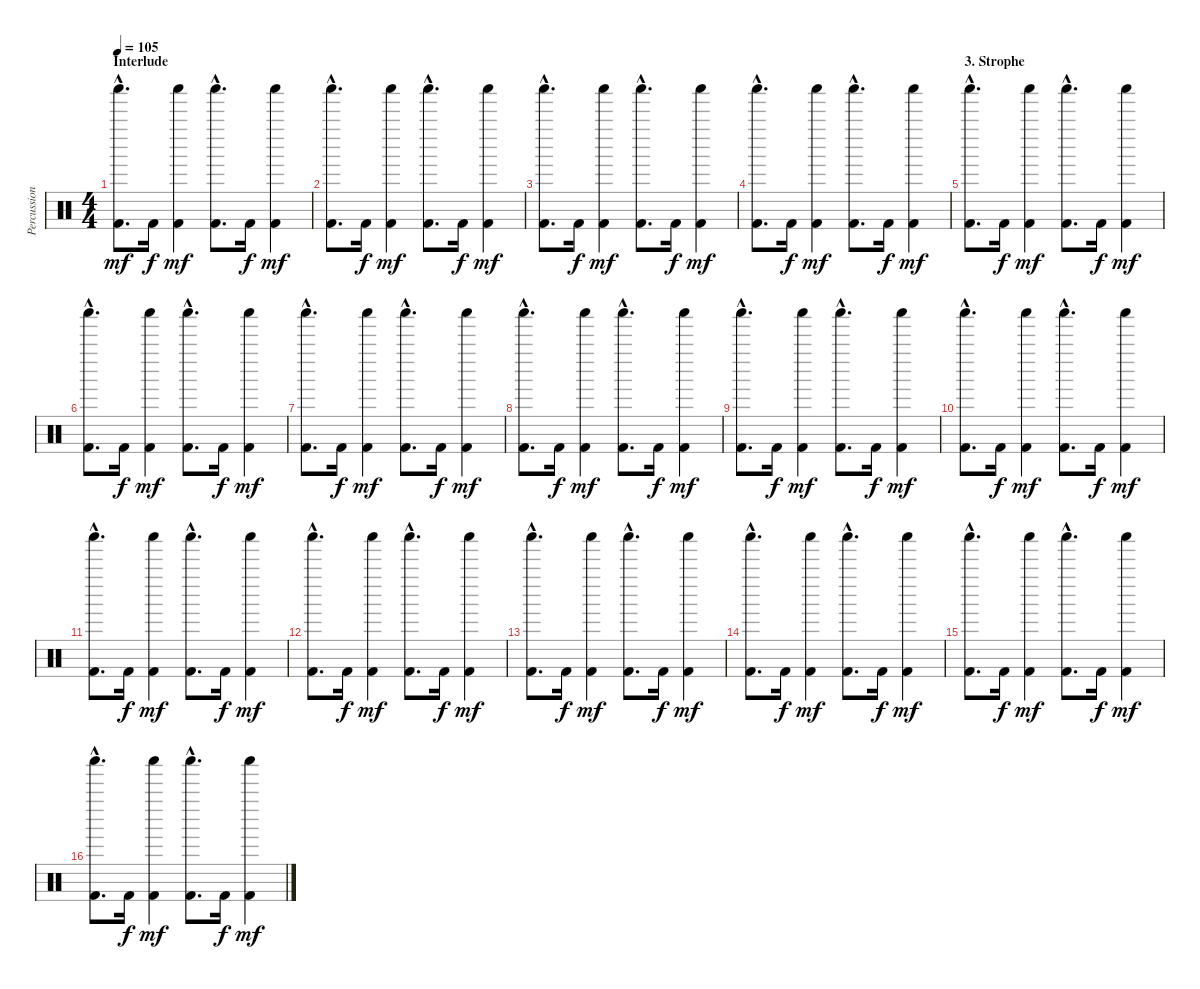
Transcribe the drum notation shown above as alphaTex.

\track ("Percussion" "Percussion") {instrument percussion}
\staff {score}
\articulation defaults
\ts (4 4)
\section ("" "Interlude")
\tempo 105
\clef neutral
\ks c
("Shaker (hit)"{hac} "Kick (hit) 2"{hac}).8{d dy mf} "Kick (hit) 2".16{dy f} ("Shaker (hit)" "Kick (hit) 2").4{dy mf} ("Shaker (hit)"{hac} "Kick (hit) 2"{hac}).8{d} "Kick (hit) 2".16{dy f} ("Shaker (hit)" "Kick (hit) 2").4{dy mf} |
("Shaker (hit)"{hac} "Kick (hit) 2"{hac}).8{d} "Kick (hit) 2".16{dy f} ("Shaker (hit)" "Kick (hit) 2").4{dy mf} ("Shaker (hit)"{hac} "Kick (hit) 2"{hac}).8{d} "Kick (hit) 2".16{dy f} ("Shaker (hit)" "Kick (hit) 2").4{dy mf} |
("Shaker (hit)"{hac} "Kick (hit) 2"{hac}).8{d} "Kick (hit) 2".16{dy f} ("Shaker (hit)" "Kick (hit) 2").4{dy mf} ("Shaker (hit)"{hac} "Kick (hit) 2"{hac}).8{d} "Kick (hit) 2".16{dy f} ("Shaker (hit)" "Kick (hit) 2").4{dy mf} |
("Shaker (hit)"{hac} "Kick (hit) 2"{hac}).8{d} "Kick (hit) 2".16{dy f} ("Shaker (hit)" "Kick (hit) 2").4{dy mf} ("Shaker (hit)"{hac} "Kick (hit) 2"{hac}).8{d} "Kick (hit) 2".16{dy f} ("Shaker (hit)" "Kick (hit) 2").4{dy mf} |
\section ("" "3. Strophe")
("Shaker (hit)"{hac} "Kick (hit) 2"{hac}).8{d} "Kick (hit) 2".16{dy f} ("Shaker (hit)" "Kick (hit) 2").4{dy mf} ("Shaker (hit)"{hac} "Kick (hit) 2"{hac}).8{d} "Kick (hit) 2".16{dy f} ("Shaker (hit)" "Kick (hit) 2").4{dy mf} |
("Shaker (hit)"{hac} "Kick (hit) 2"{hac}).8{d} "Kick (hit) 2".16{dy f} ("Shaker (hit)" "Kick (hit) 2").4{dy mf} ("Shaker (hit)"{hac} "Kick (hit) 2"{hac}).8{d} "Kick (hit) 2".16{dy f} ("Shaker (hit)" "Kick (hit) 2").4{dy mf} |
("Shaker (hit)"{hac} "Kick (hit) 2"{hac}).8{d} "Kick (hit) 2".16{dy f} ("Shaker (hit)" "Kick (hit) 2").4{dy mf} ("Shaker (hit)"{hac} "Kick (hit) 2"{hac}).8{d} "Kick (hit) 2".16{dy f} ("Shaker (hit)" "Kick (hit) 2").4{dy mf} |
("Shaker (hit)"{hac} "Kick (hit) 2"{hac}).8{d} "Kick (hit) 2".16{dy f} ("Shaker (hit)" "Kick (hit) 2").4{dy mf} ("Shaker (hit)"{hac} "Kick (hit) 2"{hac}).8{d} "Kick (hit) 2".16{dy f} ("Shaker (hit)" "Kick (hit) 2").4{dy mf} |
("Shaker (hit)"{hac} "Kick (hit) 2"{hac}).8{d} "Kick (hit) 2".16{dy f} ("Shaker (hit)" "Kick (hit) 2").4{dy mf} ("Shaker (hit)"{hac} "Kick (hit) 2"{hac}).8{d} "Kick (hit) 2".16{dy f} ("Shaker (hit)" "Kick (hit) 2").4{dy mf} |
("Shaker (hit)"{hac} "Kick (hit) 2"{hac}).8{d} "Kick (hit) 2".16{dy f} ("Shaker (hit)" "Kick (hit) 2").4{dy mf} ("Shaker (hit)"{hac} "Kick (hit) 2"{hac}).8{d} "Kick (hit) 2".16{dy f} ("Shaker (hit)" "Kick (hit) 2").4{dy mf} |
("Shaker (hit)"{hac} "Kick (hit) 2"{hac}).8{d} "Kick (hit) 2".16{dy f} ("Shaker (hit)" "Kick (hit) 2").4{dy mf} ("Shaker (hit)"{hac} "Kick (hit) 2"{hac}).8{d} "Kick (hit) 2".16{dy f} ("Shaker (hit)" "Kick (hit) 2").4{dy mf} |
("Shaker (hit)"{hac} "Kick (hit) 2"{hac}).8{d} "Kick (hit) 2".16{dy f} ("Shaker (hit)" "Kick (hit) 2").4{dy mf} ("Shaker (hit)"{hac} "Kick (hit) 2"{hac}).8{d} "Kick (hit) 2".16{dy f} ("Shaker (hit)" "Kick (hit) 2").4{dy mf} |
("Shaker (hit)"{hac} "Kick (hit) 2"{hac}).8{d} "Kick (hit) 2".16{dy f} ("Shaker (hit)" "Kick (hit) 2").4{dy mf} ("Shaker (hit)"{hac} "Kick (hit) 2"{hac}).8{d} "Kick (hit) 2".16{dy f} ("Shaker (hit)" "Kick (hit) 2").4{dy mf} |
("Shaker (hit)"{hac} "Kick (hit) 2"{hac}).8{d} "Kick (hit) 2".16{dy f} ("Shaker (hit)" "Kick (hit) 2").4{dy mf} ("Shaker (hit)"{hac} "Kick (hit) 2"{hac}).8{d} "Kick (hit) 2".16{dy f} ("Shaker (hit)" "Kick (hit) 2").4{dy mf} |
("Shaker (hit)"{hac} "Kick (hit) 2"{hac}).8{d} "Kick (hit) 2".16{dy f} ("Shaker (hit)" "Kick (hit) 2").4{dy mf} ("Shaker (hit)"{hac} "Kick (hit) 2"{hac}).8{d} "Kick (hit) 2".16{dy f} ("Shaker (hit)" "Kick (hit) 2").4{dy mf} |
("Shaker (hit)"{hac} "Kick (hit) 2"{hac}).8{d} "Kick (hit) 2".16{dy f} ("Shaker (hit)" "Kick (hit) 2").4{dy mf} ("Shaker (hit)"{hac} "Kick (hit) 2"{hac}).8{d} "Kick (hit) 2".16{dy f} ("Shaker (hit)" "Kick (hit) 2").4{dy mf}
